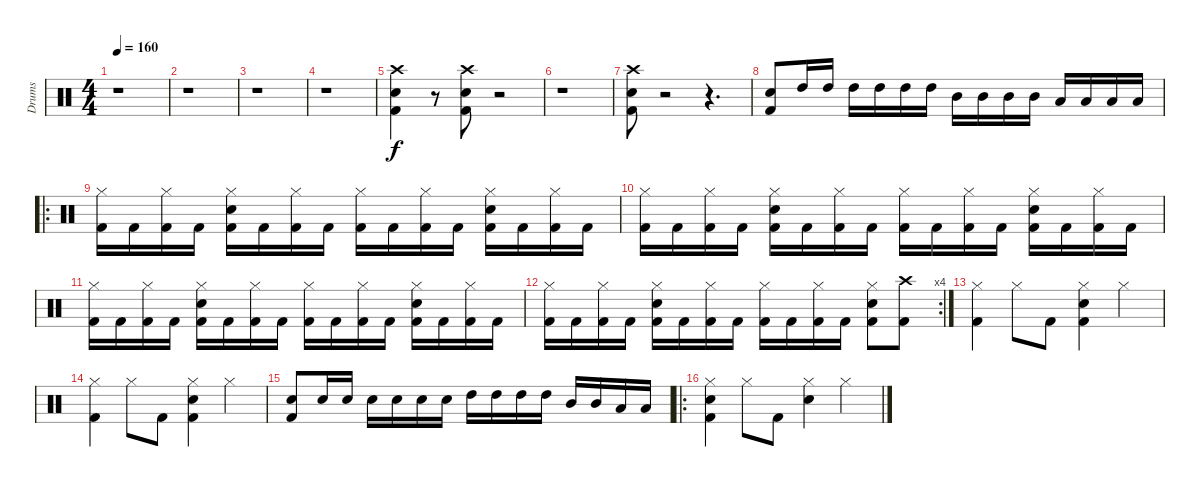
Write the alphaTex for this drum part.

\track ("Drums" "Drums") {instrument percussion}
\staff {score}
\articulation defaults
\ts (4 4)
\tempo 160
\clef neutral
\ks c
r.1{dy f} |
r.1 |
r.1 |
r.1 |
("Kick (hit) 2" "Snare (hit) 2" "Crash high (hit)").4 r.8 ("Kick (hit) 2" "Snare (hit) 2" "Crash high (hit)").8 r.2 |
r.1 |
("Kick (hit) 2" "Snare (hit) 2" "Crash high (hit)").8 r.2 r.4{d} |
("Kick (hit) 2" "Snare (hit) 2").8 "High Tom (hit)".16 "High Tom (hit)".16 "High Tom (hit)".16 "High Tom (hit)".16 "High Tom (hit)".16 "High Tom (hit)".16 "Mid Tom (hit)".16 "Mid Tom (hit)".16 "Mid Tom (hit)".16 "Mid Tom (hit)".16 "Low Tom (hit)".16 "Low Tom (hit)".16 "Low Tom (hit)".16 "Low Tom (hit)".16 |
\ro
("Kick (hit) 2" "Hi-Hat (closed)").16 "Kick (hit) 2".16 ("Kick (hit) 2" "Hi-Hat (closed)").16 "Kick (hit) 2".16 ("Kick (hit) 2" "Snare (hit) 2" "Hi-Hat (closed)").16 "Kick (hit) 2".16 ("Kick (hit) 2" "Hi-Hat (closed)").16 "Kick (hit) 2".16 ("Kick (hit) 2" "Hi-Hat (closed)").16 "Kick (hit) 2".16 ("Kick (hit) 2" "Hi-Hat (closed)").16 "Kick (hit) 2".16 ("Kick (hit) 2" "Snare (hit) 2" "Hi-Hat (closed)").16 "Kick (hit) 2".16 ("Kick (hit) 2" "Hi-Hat (closed)").16 "Kick (hit) 2".16 |
("Kick (hit) 2" "Hi-Hat (closed)").16 "Kick (hit) 2".16 ("Kick (hit) 2" "Hi-Hat (closed)").16 "Kick (hit) 2".16 ("Kick (hit) 2" "Snare (hit) 2" "Hi-Hat (closed)").16 "Kick (hit) 2".16 ("Kick (hit) 2" "Hi-Hat (closed)").16 "Kick (hit) 2".16 ("Kick (hit) 2" "Hi-Hat (closed)").16 "Kick (hit) 2".16 ("Kick (hit) 2" "Hi-Hat (closed)").16 "Kick (hit) 2".16 ("Kick (hit) 2" "Snare (hit) 2" "Hi-Hat (closed)").16 "Kick (hit) 2".16 ("Kick (hit) 2" "Hi-Hat (closed)").16 "Kick (hit) 2".16 |
("Kick (hit) 2" "Hi-Hat (closed)").16 "Kick (hit) 2".16 ("Kick (hit) 2" "Hi-Hat (closed)").16 "Kick (hit) 2".16 ("Kick (hit) 2" "Snare (hit) 2" "Hi-Hat (closed)").16 "Kick (hit) 2".16 ("Kick (hit) 2" "Hi-Hat (closed)").16 "Kick (hit) 2".16 ("Kick (hit) 2" "Hi-Hat (closed)").16 "Kick (hit) 2".16 ("Kick (hit) 2" "Hi-Hat (closed)").16 "Kick (hit) 2".16 ("Kick (hit) 2" "Snare (hit) 2" "Hi-Hat (closed)").16 "Kick (hit) 2".16 ("Kick (hit) 2" "Hi-Hat (closed)").16 "Kick (hit) 2".16 |
\rc 4
("Kick (hit) 2" "Hi-Hat (closed)").16 "Kick (hit) 2".16 ("Kick (hit) 2" "Hi-Hat (closed)").16 "Kick (hit) 2".16 ("Kick (hit) 2" "Snare (hit) 2" "Hi-Hat (closed)").16 "Kick (hit) 2".16 ("Kick (hit) 2" "Hi-Hat (closed)").16 "Kick (hit) 2".16 ("Kick (hit) 2" "Hi-Hat (closed)").16 "Kick (hit) 2".16 ("Kick (hit) 2" "Hi-Hat (closed)").16 "Kick (hit) 2".16 ("Kick (hit) 2" "Snare (hit) 2" "Hi-Hat (closed)").8 ("Kick (hit) 2" "Crash high (hit)").8 |
("Kick (hit) 2" "Hi-Hat (closed)").4 "Hi-Hat (closed)".8 "Kick (hit) 2".8 ("Kick (hit) 2" "Snare (hit) 2" "Hi-Hat (closed)").4 "Hi-Hat (closed)".4 |
("Kick (hit) 2" "Hi-Hat (closed)").4 "Hi-Hat (closed)".8 "Kick (hit) 2".8 ("Kick (hit) 2" "Snare (hit) 2" "Hi-Hat (closed)").4 "Hi-Hat (closed)".4 |
("Kick (hit) 2" "Snare (hit) 2").8 "Snare (hit) 2".16 "Snare (hit) 2".16 "Snare (hit) 2".16 "Snare (hit) 2".16 "Snare (hit) 2".16 "Snare (hit) 2".16 "High Tom (hit)".16 "High Tom (hit)".16 "High Tom (hit)".16 "High Tom (hit)".16 "Mid Tom (hit)".16 "Mid Tom (hit)".16 "Low Tom (hit)".16 "Low Tom (hit)".16 |
\ro
("Kick (hit) 2" "Snare (hit) 2" "Hi-Hat (closed)").4 "Hi-Hat (closed)".8 "Kick (hit) 2".8 ("Snare (hit) 2" "Hi-Hat (closed)").4 "Hi-Hat (closed)".4
